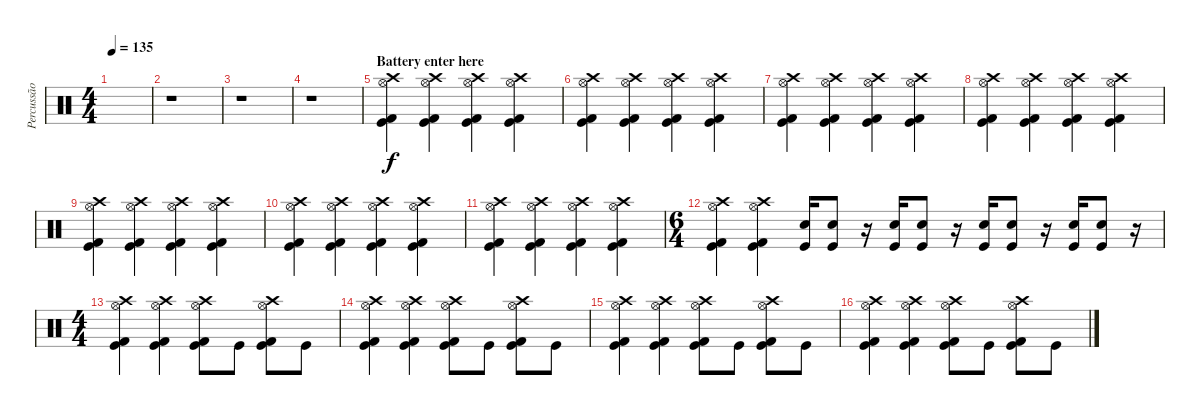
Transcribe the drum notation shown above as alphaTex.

\track ("Percussão" "Percussão") {instrument percussion}
\staff {score}
\articulation defaults
\ts (4 4)
\tempo 135
\clef neutral
\ks c
|
r.1 |
r.1 |
r.1 |
\section ("" "Battery enter here")
("Kick (hit)" "Hi-Hat (open)" "Kick (hit) 2" "Crash high (hit)").4 ("Kick (hit)" "Hi-Hat (open)" "Kick (hit) 2" "Crash high (hit)").4 ("Kick (hit)" "Hi-Hat (open)" "Kick (hit) 2" "Crash high (hit)").4 ("Kick (hit)" "Hi-Hat (open)" "Kick (hit) 2" "Crash high (hit)").4 |
("Kick (hit)" "Hi-Hat (open)" "Kick (hit) 2" "Crash high (hit)").4 ("Kick (hit)" "Hi-Hat (open)" "Kick (hit) 2" "Crash high (hit)").4 ("Kick (hit)" "Hi-Hat (open)" "Kick (hit) 2" "Crash high (hit)").4 ("Kick (hit)" "Hi-Hat (open)" "Kick (hit) 2" "Crash high (hit)").4 |
("Kick (hit)" "Hi-Hat (open)" "Kick (hit) 2" "Crash high (hit)").4 ("Kick (hit)" "Hi-Hat (open)" "Kick (hit) 2" "Crash high (hit)").4 ("Kick (hit)" "Hi-Hat (open)" "Kick (hit) 2" "Crash high (hit)").4 ("Kick (hit)" "Hi-Hat (open)" "Kick (hit) 2" "Crash high (hit)").4 |
("Kick (hit)" "Hi-Hat (open)" "Kick (hit) 2" "Crash high (hit)").4 ("Kick (hit)" "Hi-Hat (open)" "Kick (hit) 2" "Crash high (hit)").4 ("Kick (hit)" "Hi-Hat (open)" "Kick (hit) 2" "Crash high (hit)").4 ("Kick (hit)" "Hi-Hat (open)" "Kick (hit) 2" "Crash high (hit)").4 |
("Kick (hit)" "Hi-Hat (open)" "Kick (hit) 2" "Crash high (hit)").4 ("Kick (hit)" "Hi-Hat (open)" "Kick (hit) 2" "Crash high (hit)").4 ("Kick (hit)" "Hi-Hat (open)" "Kick (hit) 2" "Crash high (hit)").4 ("Kick (hit)" "Hi-Hat (open)" "Kick (hit) 2" "Crash high (hit)").4 |
("Kick (hit)" "Hi-Hat (open)" "Kick (hit) 2" "Crash high (hit)").4 ("Kick (hit)" "Hi-Hat (open)" "Kick (hit) 2" "Crash high (hit)").4 ("Kick (hit)" "Hi-Hat (open)" "Kick (hit) 2" "Crash high (hit)").4 ("Kick (hit)" "Hi-Hat (open)" "Kick (hit) 2" "Crash high (hit)").4 |
("Kick (hit)" "Hi-Hat (open)" "Kick (hit) 2" "Crash high (hit)").4 ("Kick (hit)" "Hi-Hat (open)" "Kick (hit) 2" "Crash high (hit)").4 ("Kick (hit)" "Hi-Hat (open)" "Kick (hit) 2" "Crash high (hit)").4 ("Kick (hit)" "Hi-Hat (open)" "Kick (hit) 2" "Crash high (hit)").4 |
\ts (6 4)
("Kick (hit)" "Hi-Hat (open)" "Kick (hit) 2" "Crash high (hit)").4 ("Kick (hit)" "Hi-Hat (open)" "Kick (hit) 2" "Crash high (hit)").4 ("Kick (hit)" "Electric Snare (hit)").16 ("Kick (hit)" "Electric Snare (hit)").8 r.16 ("Kick (hit)" "Electric Snare (hit)").16 ("Kick (hit)" "Electric Snare (hit)").8 r.16 ("Kick (hit)" "Electric Snare (hit)").16 ("Kick (hit)" "Electric Snare (hit)").8 r.16 ("Kick (hit)" "Electric Snare (hit)").16 ("Kick (hit)" "Electric Snare (hit)").8 r.16 |
\ts (4 4)
("Kick (hit)" "Hi-Hat (open)" "Kick (hit) 2" "Crash high (hit)").4 ("Kick (hit)" "Hi-Hat (open)" "Kick (hit) 2" "Crash high (hit)").4 ("Kick (hit)" "Hi-Hat (open)" "Kick (hit) 2" "Crash high (hit)").8 "Kick (hit)".8 ("Kick (hit)" "Hi-Hat (open)" "Kick (hit) 2" "Crash high (hit)").8 "Kick (hit)".8 |
("Kick (hit)" "Hi-Hat (open)" "Kick (hit) 2" "Crash high (hit)").4 ("Kick (hit)" "Hi-Hat (open)" "Kick (hit) 2" "Crash high (hit)").4 ("Kick (hit)" "Hi-Hat (open)" "Kick (hit) 2" "Crash high (hit)").8 "Kick (hit)".8 ("Kick (hit)" "Hi-Hat (open)" "Kick (hit) 2" "Crash high (hit)").8 "Kick (hit)".8 |
("Kick (hit)" "Hi-Hat (open)" "Kick (hit) 2" "Crash high (hit)").4 ("Kick (hit)" "Hi-Hat (open)" "Kick (hit) 2" "Crash high (hit)").4 ("Kick (hit)" "Hi-Hat (open)" "Kick (hit) 2" "Crash high (hit)").8 "Kick (hit)".8 ("Kick (hit)" "Hi-Hat (open)" "Kick (hit) 2" "Crash high (hit)").8 "Kick (hit)".8 |
("Kick (hit)" "Hi-Hat (open)" "Kick (hit) 2" "Crash high (hit)").4 ("Kick (hit)" "Hi-Hat (open)" "Kick (hit) 2" "Crash high (hit)").4 ("Kick (hit)" "Hi-Hat (open)" "Kick (hit) 2" "Crash high (hit)").8 "Kick (hit)".8 ("Kick (hit)" "Hi-Hat (open)" "Kick (hit) 2" "Crash high (hit)").8 "Kick (hit)".8
